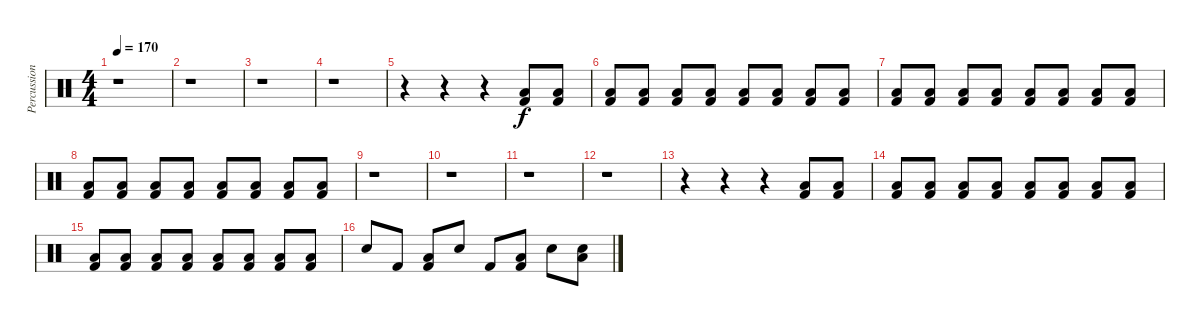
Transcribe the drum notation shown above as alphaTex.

\track ("Percussion" "Percussion") {instrument percussion}
\staff {score}
\articulation defaults
\ts (4 4)
\tempo 170
\clef neutral
\ks c
r.1{dy f} |
r.1 |
r.1 |
r.1 |
r.4 r.4 r.4 ("Low Tom (hit)" "Kick (hit) 2").8{volume 5} ("Low Tom (hit)" "Kick (hit) 2").8{volume 5} |
("Low Tom (hit)" "Kick (hit) 2").8{volume 6} ("Low Tom (hit)" "Kick (hit) 2").8{volume 6} ("Low Tom (hit)" "Kick (hit) 2").8{volume 7} ("Low Tom (hit)" "Kick (hit) 2").8{volume 7} ("Low Tom (hit)" "Kick (hit) 2").8{volume 8} ("Low Tom (hit)" "Kick (hit) 2").8{volume 8} ("Low Tom (hit)" "Kick (hit) 2").8{volume 10} ("Low Tom (hit)" "Kick (hit) 2").8{volume 10} |
("Low Tom (hit)" "Kick (hit) 2").8{volume 11} ("Low Tom (hit)" "Kick (hit) 2").8{volume 11} ("Low Tom (hit)" "Kick (hit) 2").8{volume 12} ("Low Tom (hit)" "Kick (hit) 2").8{volume 12} ("Low Tom (hit)" "Kick (hit) 2").8{volume 13} ("Low Tom (hit)" "Kick (hit) 2").8{volume 13} ("Low Tom (hit)" "Kick (hit) 2").8{volume 14} ("Low Tom (hit)" "Kick (hit) 2").8{volume 16} |
("Low Tom (hit)" "Kick (hit) 2").8{volume 11} ("Low Tom (hit)" "Kick (hit) 2").8{volume 11} ("Low Tom (hit)" "Kick (hit) 2").8{volume 12} ("Low Tom (hit)" "Kick (hit) 2").8{volume 12} ("Low Tom (hit)" "Kick (hit) 2").8{volume 13} ("Low Tom (hit)" "Kick (hit) 2").8{volume 14} ("Low Tom (hit)" "Kick (hit) 2").8{volume 16} ("Low Tom (hit)" "Kick (hit) 2").8{volume 16} |
r.1 |
r.1 |
r.1 |
r.1 |
r.4 r.4 r.4 ("Low Tom (hit)" "Kick (hit) 2").8{volume 5} ("Low Tom (hit)" "Kick (hit) 2").8{volume 5} |
("Low Tom (hit)" "Kick (hit) 2").8{volume 6} ("Low Tom (hit)" "Kick (hit) 2").8{volume 6} ("Low Tom (hit)" "Kick (hit) 2").8{volume 7} ("Low Tom (hit)" "Kick (hit) 2").8{volume 7} ("Low Tom (hit)" "Kick (hit) 2").8{volume 8} ("Low Tom (hit)" "Kick (hit) 2").8{volume 8} ("Low Tom (hit)" "Kick (hit) 2").8{volume 10} ("Low Tom (hit)" "Kick (hit) 2").8{volume 10} |
("Low Tom (hit)" "Kick (hit) 2").8{volume 11} ("Low Tom (hit)" "Kick (hit) 2").8{volume 11} ("Low Tom (hit)" "Kick (hit) 2").8{volume 12} ("Low Tom (hit)" "Kick (hit) 2").8{volume 12} ("Low Tom (hit)" "Kick (hit) 2").8{volume 13} ("Low Tom (hit)" "Kick (hit) 2").8{volume 13} ("Low Tom (hit)" "Kick (hit) 2").8{volume 14} ("Low Tom (hit)" "Kick (hit) 2").8{volume 16} |
"Snare (hit) 2".8 "Kick (hit) 2".8 ("Low Tom (hit)" "Kick (hit) 2").8 "Snare (hit) 2".8 "Kick (hit) 2".8 ("Low Tom (hit)" "Kick (hit) 2").8 "Snare (hit) 2".8 ("Low Tom (hit)" "Snare (hit) 2").8
